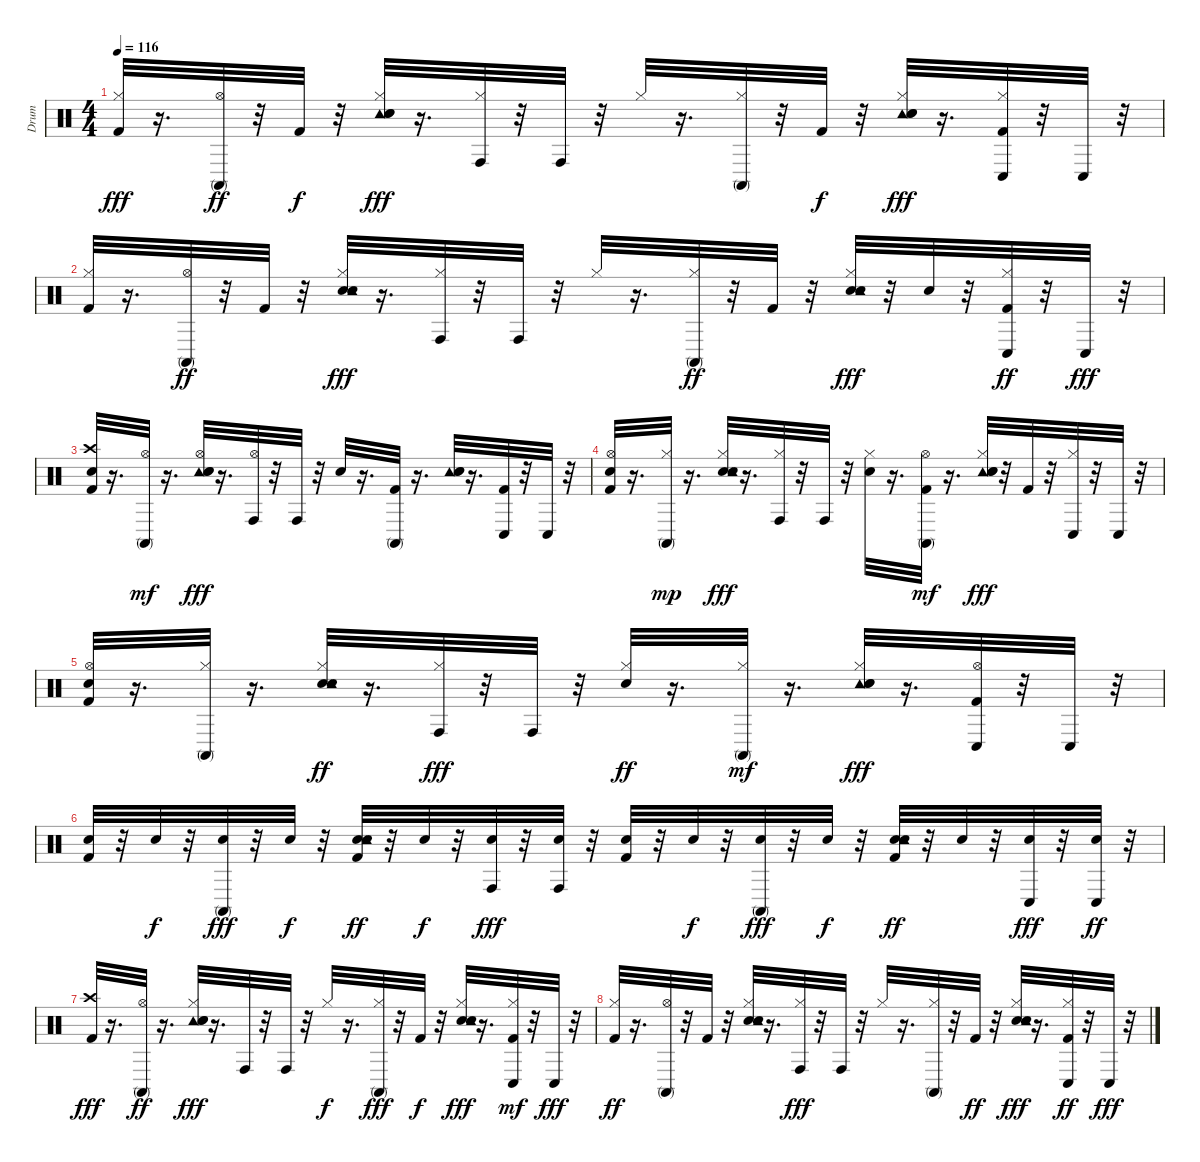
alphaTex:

\track ("Drum" "Drum") {instrument percussion}
\staff {score}
\articulation defaults
\ts (4 4)
\tempo 116
\clef neutral
\ks c
("Hi-Hat (closed)" "Kick (hit) 2").32{dy fff} r.16{d} ("Conga high (mute)" "Hi-Hat (open)").32{dy ff} r.32 "Kick (hit) 2".32{dy f} r.32 ("Tambourine (hit)" "Hi-Hat (closed)" "Electric Snare (hit)" "Hand Clap (hit)").32{dy fff} r.16{d} ("Hi-Hat (closed)" "Conga high (hit)").32 r.32 "Conga high (hit)".32 r.32 "Hi-Hat (closed)".32 r.16{d} ("Conga high (mute)" "Hi-Hat (closed)").32 r.32 "Kick (hit) 2".32{dy f} r.32 ("Tambourine (hit)" "Electric Snare (hit)" "Hand Clap (hit)" "Hi-Hat (closed)").32{dy fff} r.16{d} ("Kick (hit) 2" "Hi-Hat (closed)" "Conga low (hit)").32 r.32 "Conga low (hit)".32 r.32 |
("Kick (hit) 2" "Hi-Hat (closed)").32 r.16{d} ("Conga high (mute)" "Hi-Hat (open)").32{dy ff} r.32 "Kick (hit) 2".32 r.32 ("Electric Snare (hit)" "Hand Clap (hit)" "Tambourine (hit)" "Hi-Hat (closed)").32{dy fff} r.16{d} ("Conga high (hit)" "Hi-Hat (closed)").32 r.32 "Conga high (hit)".32 r.32 "Hi-Hat (closed)".32 r.16{d} ("Conga high (mute)" "Hi-Hat (closed)").32{dy ff} r.32 "Kick (hit) 2".32 r.32 ("Hi-Hat (closed)" "Electric Snare (hit)" "Tambourine (hit)" "Hand Clap (hit)").32{dy fff} r.32 "Electric Snare (hit)".32 r.32 ("Conga low (hit)" "Kick (hit) 2" "Hi-Hat (closed)").32{dy ff} r.32 "Conga low (hit)".32{dy fff} r.32 |
("Electric Snare (hit)" "Crash high (hit)" "Kick (hit) 2").32 r.16{d} ("Conga high (mute)" "Hi-Hat (open)").32{dy mf} r.16{d} ("Hi-Hat (open)" "Tambourine (hit)" "Electric Snare (hit)" "Hand Clap (hit)").32{dy fff} r.16{d} ("Hi-Hat (open)" "Conga high (hit)").32 r.32 "Conga high (hit)".32 r.32 "Electric Snare (hit)".32 r.16{d} ("Kick (hit) 2" "Conga high (mute)").32 r.16{d} ("Tambourine (hit)" "Electric Snare (hit)" "Hand Clap (hit)").32 r.16{d} ("Kick (hit) 2" "Conga low (hit)").32 r.32 "Conga low (hit)".32 r.32 |
("Hi-Hat (open)" "Electric Snare (hit)" "Kick (hit) 2").32 r.16{d} ("Conga high (mute)" "Hi-Hat (closed)").32{dy mp} r.16{d} ("Electric Snare (hit)" "Tambourine (hit)" "Hi-Hat (closed)" "Hand Clap (hit)").32{dy fff} r.16{d} ("Hi-Hat (closed)" "Conga high (hit)").32 r.32 "Conga high (hit)".32 r.32 ("Hi-Hat (closed)" "Electric Snare (hit)").32 r.16{d} ("Conga high (mute)" "Kick (hit) 2" "Hi-Hat (open)").32{dy mf} r.16{d} ("Tambourine (hit)" "Hi-Hat (closed)" "Hand Clap (hit)" "Electric Snare (hit)").32{dy fff} r.32 "Kick (hit) 2".32 r.32 ("Hi-Hat (closed)" "Conga low (hit)").32 r.32 "Conga low (hit)".32 r.32 |
("Hi-Hat (open)" "Electric Snare (hit)" "Kick (hit) 2").32 r.16{d} ("Hi-Hat (closed)" "Conga high (mute)").32 r.16{d} ("Electric Snare (hit)" "Tambourine (hit)" "Hand Clap (hit)" "Hi-Hat (closed)").32{dy ff} r.16{d} ("Hi-Hat (closed)" "Conga high (hit)").32{dy fff} r.32 "Conga high (hit)".32 r.32 ("Electric Snare (hit)" "Hi-Hat (closed)").32{dy ff} r.16{d} ("Conga high (mute)" "Hi-Hat (closed)").32{dy mf} r.16{d} ("Tambourine (hit)" "Hi-Hat (closed)" "Hand Clap (hit)" "Electric Snare (hit)").32{dy fff} r.16{d} ("Hi-Hat (open)" "Conga low (hit)" "Kick (hit) 2").32 r.32 "Conga low (hit)".32 r.32 |
("Kick (hit) 2" "Electric Snare (hit)").32 r.32 "Electric Snare (hit)".32{dy f} r.32 ("Electric Snare (hit)" "Conga high (mute)").32{dy fff} r.32 "Electric Snare (hit)".32{dy f} r.32 ("Kick (hit) 2" "Hand Clap (hit)" "Electric Snare (hit)" "Tambourine (hit)").32{dy ff} r.32 "Electric Snare (hit)".32{dy f} r.32 ("Conga high (hit)" "Electric Snare (hit)").32{dy fff} r.32 ("Electric Snare (hit)" "Conga high (hit)").32 r.32 ("Kick (hit) 2" "Electric Snare (hit)").32 r.32 "Electric Snare (hit)".32{dy f} r.32 ("Conga high (mute)" "Electric Snare (hit)").32{dy fff} r.32 "Electric Snare (hit)".32{dy f} r.32 ("Hand Clap (hit)" "Electric Snare (hit)" "Kick (hit) 2" "Tambourine (hit)").32{dy ff} r.32 "Electric Snare (hit)".32 r.32 ("Electric Snare (hit)" "Conga low (hit)").32{dy fff} r.32 ("Conga low (hit)" "Electric Snare (hit)").32{dy ff} r.32 |
("Kick (hit) 2" "Crash high (hit)").32{dy fff} r.16{d} ("Conga high (mute)" "Hi-Hat (open)").32{dy ff} r.16{d} ("Tambourine (hit)" "Hand Clap (hit)" "Hi-Hat (closed)" "Electric Snare (hit)").32{dy fff} r.16{d} "Conga high (hit)".32 r.32 "Conga high (hit)".32 r.32 "Hi-Hat (closed)".32{dy f} r.16{d} ("Conga high (mute)" "Hi-Hat (closed)").32{dy fff} r.32 "Kick (hit) 2".32{dy f} r.32 ("Hand Clap (hit)" "Electric Snare (hit)" "Hi-Hat (closed)" "Tambourine (hit)").32{dy fff} r.16{d} ("Kick (hit) 2" "Conga low (hit)" "Hi-Hat (closed)").32{dy mf} r.32 "Conga low (hit)".32{dy fff} r.32 |
("Kick (hit) 2" "Hi-Hat (closed)").32{dy ff} r.16{d} ("Conga high (mute)" "Hi-Hat (open)").32 r.32 "Kick (hit) 2".32 r.32 ("Hi-Hat (closed)" "Electric Snare (hit)" "Hand Clap (hit)" "Tambourine (hit)").32 r.16{d} ("Hi-Hat (closed)" "Conga high (hit)").32{dy fff} r.32 "Conga high (hit)".32 r.32 "Hi-Hat (closed)".32 r.16{d} ("Hi-Hat (closed)" "Conga high (mute)").32 r.32 "Kick (hit) 2".32{dy ff} r.32 ("Hand Clap (hit)" "Tambourine (hit)" "Electric Snare (hit)" "Hi-Hat (closed)").32{dy fff} r.16{d} ("Conga low (hit)" "Hi-Hat (closed)" "Kick (hit) 2").32{dy ff} r.32 "Conga low (hit)".32{dy fff} r.32
